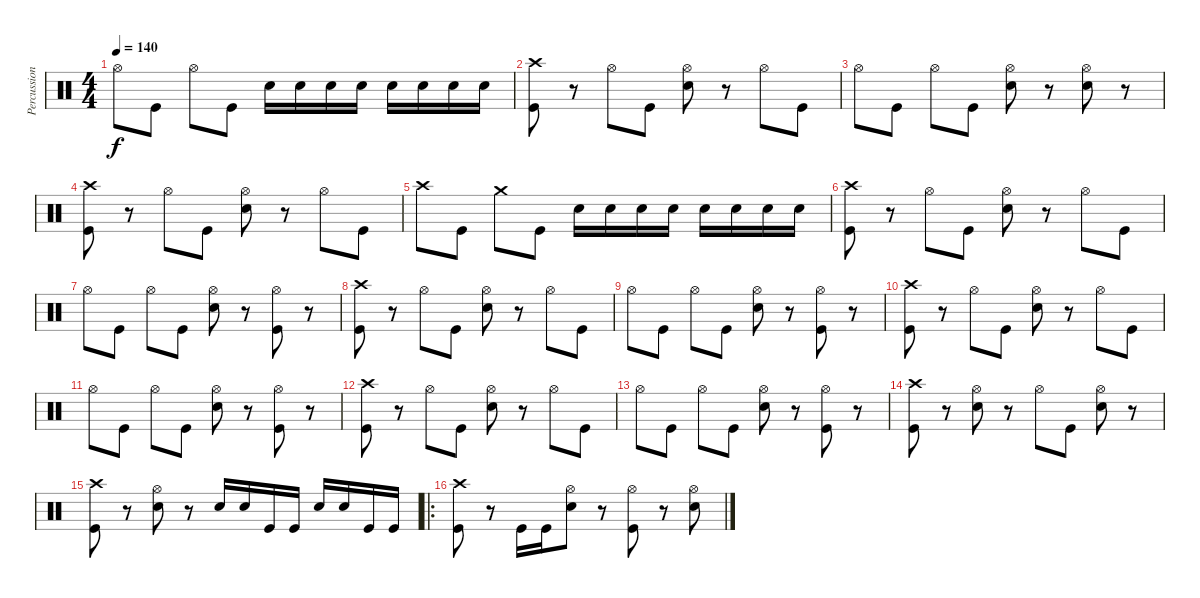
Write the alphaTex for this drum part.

\track ("Percussion" "Percussion") {instrument percussion}
\staff {score}
\articulation defaults
\ts (4 4)
\tempo 140
\clef neutral
\ks c "Hi-Hat (open)".8{dy f} "Kick (hit)".8 "Hi-Hat (open)".8 "Kick (hit)".8 "Electric Snare (hit)".16 "Electric Snare (hit)".16 "Electric Snare (hit)".16 "Electric Snare (hit)".16 "Electric Snare (hit)".16 "Electric Snare (hit)".16 "Electric Snare (hit)".16 "Electric Snare (hit)".16
|
("Crash high (hit)" "Kick (hit)").8 r.8 "Hi-Hat (open)".8 "Kick (hit)".8 ("Hi-Hat (open)" "Electric Snare (hit)").8 r.8 "Hi-Hat (open)".8 "Kick (hit)".8 |
"Hi-Hat (open)".8 "Kick (hit)".8 "Hi-Hat (open)".8 "Kick (hit)".8 ("Hi-Hat (open)" "Electric Snare (hit)").8 r.8 ("Hi-Hat (open)" "Electric Snare (hit)").8 r.8 |
("Crash high (hit)" "Kick (hit)").8 r.8 "Hi-Hat (open)".8 "Kick (hit)".8 ("Hi-Hat (open)" "Electric Snare (hit)").8 r.8 "Hi-Hat (open)".8 "Kick (hit)".8 |
"Crash high (hit)".8 "Kick (hit)".8 "Crash medium (hit)".8 "Kick (hit)".8 "Electric Snare (hit)".16 "Electric Snare (hit)".16 "Electric Snare (hit)".16 "Electric Snare (hit)".16 "Electric Snare (hit)".16 "Electric Snare (hit)".16 "Electric Snare (hit)".16 "Electric Snare (hit)".16 |
("Crash high (hit)" "Kick (hit)").8 r.8 "Hi-Hat (open)".8 "Kick (hit)".8 ("Hi-Hat (open)" "Electric Snare (hit)").8 r.8 "Hi-Hat (open)".8 "Kick (hit)".8 |
"Hi-Hat (open)".8 "Kick (hit)".8 "Hi-Hat (open)".8 "Kick (hit)".8 ("Hi-Hat (open)" "Electric Snare (hit)").8 r.8 ("Hi-Hat (open)" "Kick (hit)").8 r.8 |
("Crash high (hit)" "Kick (hit)").8 r.8 "Hi-Hat (open)".8 "Kick (hit)".8 ("Hi-Hat (open)" "Electric Snare (hit)").8 r.8 "Hi-Hat (open)".8 "Kick (hit)".8 |
"Hi-Hat (open)".8 "Kick (hit)".8 "Hi-Hat (open)".8 "Kick (hit)".8 ("Hi-Hat (open)" "Electric Snare (hit)").8 r.8 ("Hi-Hat (open)" "Kick (hit)").8 r.8 |
("Crash high (hit)" "Kick (hit)").8 r.8 "Hi-Hat (open)".8 "Kick (hit)".8 ("Hi-Hat (open)" "Electric Snare (hit)").8 r.8 "Hi-Hat (open)".8 "Kick (hit)".8 |
"Hi-Hat (open)".8 "Kick (hit)".8 "Hi-Hat (open)".8 "Kick (hit)".8 ("Hi-Hat (open)" "Electric Snare (hit)").8 r.8 ("Hi-Hat (open)" "Kick (hit)").8 r.8 |
("Crash high (hit)" "Kick (hit)").8 r.8 "Hi-Hat (open)".8 "Kick (hit)".8 ("Hi-Hat (open)" "Electric Snare (hit)").8 r.8 "Hi-Hat (open)".8 "Kick (hit)".8 |
"Hi-Hat (open)".8 "Kick (hit)".8 "Hi-Hat (open)".8 "Kick (hit)".8 ("Hi-Hat (open)" "Electric Snare (hit)").8 r.8 ("Hi-Hat (open)" "Kick (hit)").8 r.8 |
("Crash high (hit)" "Kick (hit)").8 r.8 ("Hi-Hat (open)" "Electric Snare (hit)").8 r.8 "Hi-Hat (open)".8 "Kick (hit)".8 ("Hi-Hat (open)" "Electric Snare (hit)").8 r.8 |
("Crash high (hit)" "Kick (hit)").8 r.8 ("Hi-Hat (open)" "Electric Snare (hit)").8 r.8 "Electric Snare (hit)".16 "Electric Snare (hit)".16 "Kick (hit)".16 "Kick (hit)".16 "Electric Snare (hit)".16 "Electric Snare (hit)".16 "Kick (hit)".16 "Kick (hit)".16 |
\ro
("Crash high (hit)" "Kick (hit)").8 r.8 "Kick (hit)".16 "Kick (hit)".16 ("Hi-Hat (open)" "Electric Snare (hit)").8 r.8 ("Hi-Hat (open)" "Kick (hit)").8 r.8 ("Hi-Hat (open)" "Electric Snare (hit)").8
